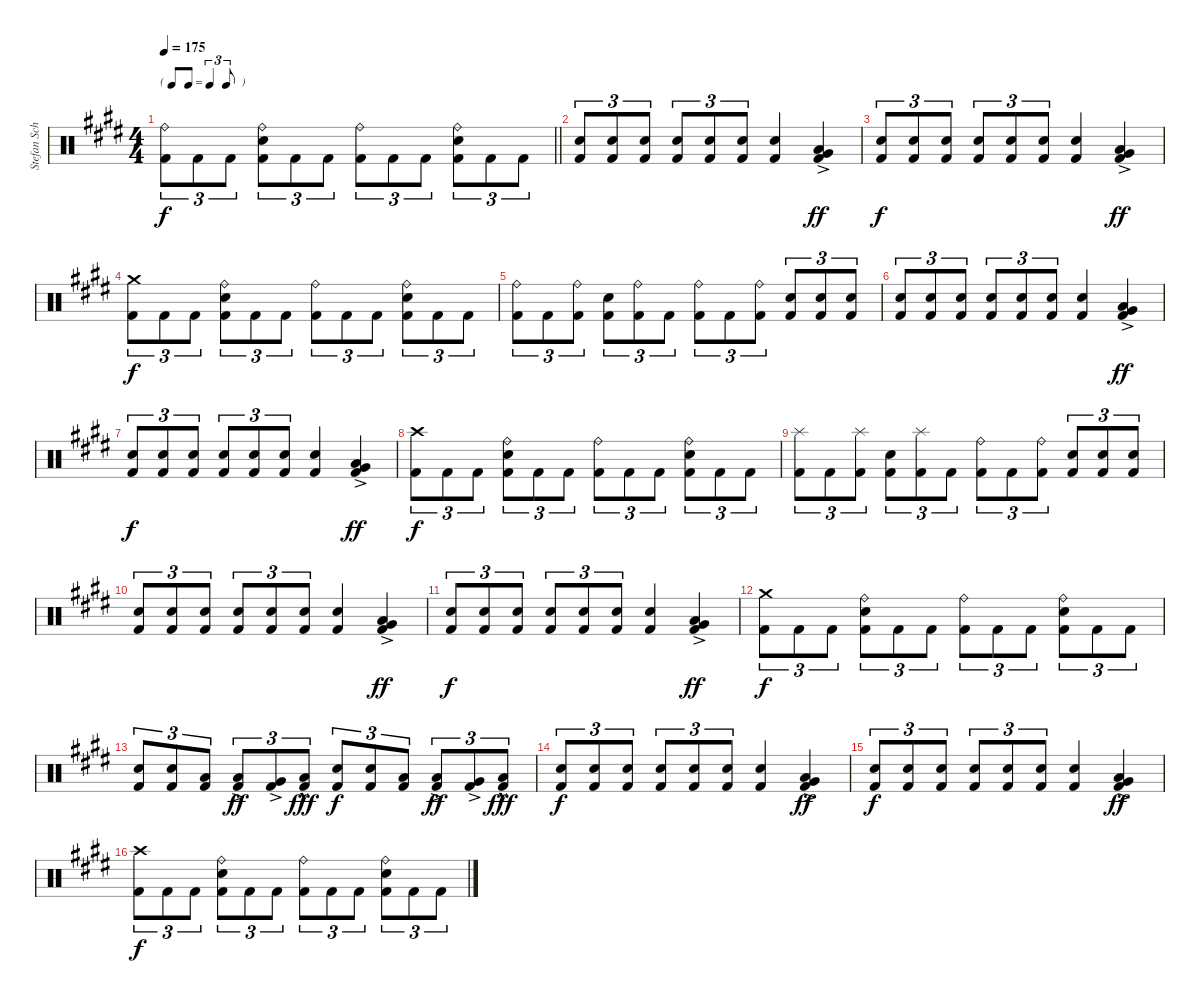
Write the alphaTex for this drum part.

\track ("Stefan Schwarzmann" "Stefan Sch") {instrument percussion}
\staff {score}
\articulation defaults
\ts (4 4)
\tf triplet8th
\tempo 175
\clef neutral
\barLineRight lightlight
\ks c#minor
("Ride (bell)" "Kick (hit) 2").8{tu (3 2) dy f} "Kick (hit) 2".8{tu (3 2)} "Kick (hit) 2".8{tu (3 2)} ("Ride (bell)" "Snare (hit) 2" "Kick (hit) 2").8{tu (3 2)} "Kick (hit) 2".8{tu (3 2)} "Kick (hit) 2".8{tu (3 2)} ("Ride (bell)" "Kick (hit) 2").8{tu (3 2)} "Kick (hit) 2".8{tu (3 2)} "Kick (hit) 2".8{tu (3 2)} ("Ride (bell)" "Snare (hit) 2" "Kick (hit) 2").8{tu (3 2)} "Kick (hit) 2".8{tu (3 2)} "Kick (hit) 2".8{tu (3 2)} |
\section ("" "")
("Snare (hit) 2" "Kick (hit) 2").8{tu (3 2)} ("Snare (hit) 2" "Kick (hit) 2").8{tu (3 2)} ("Snare (hit) 2" "Kick (hit) 2").8{tu (3 2)} ("Snare (hit) 2" "Kick (hit) 2").8{tu (3 2)} ("Snare (hit) 2" "Kick (hit) 2").8{tu (3 2)} ("Snare (hit) 2" "Kick (hit) 2").8{tu (3 2)} ("Snare (hit) 2" "Kick (hit) 2").4 ("Low Floor Tom (hit)"{ac} "Very Low Tom (hit)"{ac} "Kick (hit) 2").4{dy ff} |
("Snare (hit) 2" "Kick (hit) 2").8{tu (3 2) dy f} ("Snare (hit) 2" "Kick (hit) 2").8{tu (3 2)} ("Snare (hit) 2" "Kick (hit) 2").8{tu (3 2)} ("Snare (hit) 2" "Kick (hit) 2").8{tu (3 2)} ("Snare (hit) 2" "Kick (hit) 2").8{tu (3 2)} ("Snare (hit) 2" "Kick (hit) 2").8{tu (3 2)} ("Snare (hit) 2" "Kick (hit) 2").4 ("Low Floor Tom (hit)"{ac} "Very Low Tom (hit)"{ac} "Kick (hit) 2").4{dy ff} |
("Crash medium (hit)" "Kick (hit) 2").8{tu (3 2) dy f} "Kick (hit) 2".8{tu (3 2)} "Kick (hit) 2".8{tu (3 2)} ("Ride (bell)" "Snare (hit) 2" "Kick (hit) 2").8{tu (3 2)} "Kick (hit) 2".8{tu (3 2)} "Kick (hit) 2".8{tu (3 2)} ("Ride (bell)" "Kick (hit) 2").8{tu (3 2)} "Kick (hit) 2".8{tu (3 2)} "Kick (hit) 2".8{tu (3 2)} ("Ride (bell)" "Snare (hit) 2" "Kick (hit) 2").8{tu (3 2)} "Kick (hit) 2".8{tu (3 2)} "Kick (hit) 2".8{tu (3 2)} |
("Ride (bell)" "Kick (hit) 2").8{tu (3 2)} "Kick (hit) 2".8{tu (3 2)} ("Ride (bell)" "Kick (hit) 2").8{tu (3 2)} ("Snare (hit) 2" "Kick (hit) 2").8{tu (3 2)} ("Ride (bell)" "Kick (hit) 2").8{tu (3 2)} "Kick (hit) 2".8{tu (3 2)} ("Ride (bell)" "Kick (hit) 2").8{tu (3 2)} "Kick (hit) 2".8{tu (3 2)} ("Ride (bell)" "Kick (hit) 2").8{tu (3 2)} ("Snare (hit) 2" "Kick (hit) 2").8{tu (3 2)} ("Snare (hit) 2" "Kick (hit) 2").8{tu (3 2)} ("Snare (hit) 2" "Kick (hit) 2").8{tu (3 2)} |
("Snare (hit) 2" "Kick (hit) 2").8{tu (3 2)} ("Snare (hit) 2" "Kick (hit) 2").8{tu (3 2)} ("Snare (hit) 2" "Kick (hit) 2").8{tu (3 2)} ("Snare (hit) 2" "Kick (hit) 2").8{tu (3 2)} ("Snare (hit) 2" "Kick (hit) 2").8{tu (3 2)} ("Snare (hit) 2" "Kick (hit) 2").8{tu (3 2)} ("Snare (hit) 2" "Kick (hit) 2").4 ("Low Floor Tom (hit)"{ac} "Very Low Tom (hit)"{ac} "Kick (hit) 2").4{dy ff} |
("Snare (hit) 2" "Kick (hit) 2").8{tu (3 2) dy f} ("Snare (hit) 2" "Kick (hit) 2").8{tu (3 2)} ("Snare (hit) 2" "Kick (hit) 2").8{tu (3 2)} ("Snare (hit) 2" "Kick (hit) 2").8{tu (3 2)} ("Snare (hit) 2" "Kick (hit) 2").8{tu (3 2)} ("Snare (hit) 2" "Kick (hit) 2").8{tu (3 2)} ("Snare (hit) 2" "Kick (hit) 2").4 ("Low Floor Tom (hit)"{ac} "Very Low Tom (hit)"{ac} "Kick (hit) 2").4{dy ff} |
("Crash high (hit)" "Kick (hit) 2").8{tu (3 2) dy f} "Kick (hit) 2".8{tu (3 2)} "Kick (hit) 2".8{tu (3 2)} ("Ride (bell)" "Snare (hit) 2" "Kick (hit) 2").8{tu (3 2)} "Kick (hit) 2".8{tu (3 2)} "Kick (hit) 2".8{tu (3 2)} ("Ride (bell)" "Kick (hit) 2").8{tu (3 2)} "Kick (hit) 2".8{tu (3 2)} "Kick (hit) 2".8{tu (3 2)} ("Ride (bell)" "Snare (hit) 2" "Kick (hit) 2").8{tu (3 2)} "Kick (hit) 2".8{tu (3 2)} "Kick (hit) 2".8{tu (3 2)} |
("Splash (hit)" "Kick (hit) 2").8{tu (3 2)} "Kick (hit) 2".8{tu (3 2)} ("Splash (hit)" "Kick (hit) 2").8{tu (3 2)} ("Snare (hit) 2" "Kick (hit) 2").8{tu (3 2)} ("Splash (hit)" "Kick (hit) 2").8{tu (3 2)} "Kick (hit) 2".8{tu (3 2)} ("Ride (bell)" "Kick (hit) 2").8{tu (3 2)} "Kick (hit) 2".8{tu (3 2)} ("Ride (bell)" "Kick (hit) 2").8{tu (3 2)} ("Snare (hit) 2" "Kick (hit) 2").8{tu (3 2)} ("Snare (hit) 2" "Kick (hit) 2").8{tu (3 2)} ("Snare (hit) 2" "Kick (hit) 2").8{tu (3 2)} |
("Snare (hit) 2" "Kick (hit) 2").8{tu (3 2)} ("Snare (hit) 2" "Kick (hit) 2").8{tu (3 2)} ("Snare (hit) 2" "Kick (hit) 2").8{tu (3 2)} ("Snare (hit) 2" "Kick (hit) 2").8{tu (3 2)} ("Snare (hit) 2" "Kick (hit) 2").8{tu (3 2)} ("Snare (hit) 2" "Kick (hit) 2").8{tu (3 2)} ("Snare (hit) 2" "Kick (hit) 2").4 ("Low Floor Tom (hit)"{ac} "Very Low Tom (hit)"{ac} "Kick (hit) 2").4{dy ff} |
("Snare (hit) 2" "Kick (hit) 2").8{tu (3 2) dy f} ("Snare (hit) 2" "Kick (hit) 2").8{tu (3 2)} ("Snare (hit) 2" "Kick (hit) 2").8{tu (3 2)} ("Snare (hit) 2" "Kick (hit) 2").8{tu (3 2)} ("Snare (hit) 2" "Kick (hit) 2").8{tu (3 2)} ("Snare (hit) 2" "Kick (hit) 2").8{tu (3 2)} ("Snare (hit) 2" "Kick (hit) 2").4 ("Low Floor Tom (hit)"{ac} "Very Low Tom (hit)"{ac} "Kick (hit) 2").4{dy ff} |
("Crash medium (hit)" "Kick (hit) 2").8{tu (3 2) dy f} "Kick (hit) 2".8{tu (3 2)} "Kick (hit) 2".8{tu (3 2)} ("Ride (bell)" "Snare (hit) 2" "Kick (hit) 2").8{tu (3 2)} "Kick (hit) 2".8{tu (3 2)} "Kick (hit) 2".8{tu (3 2)} ("Ride (bell)" "Kick (hit) 2").8{tu (3 2)} "Kick (hit) 2".8{tu (3 2)} "Kick (hit) 2".8{tu (3 2)} ("Ride (bell)" "Snare (hit) 2" "Kick (hit) 2").8{tu (3 2)} "Kick (hit) 2".8{tu (3 2)} "Kick (hit) 2".8{tu (3 2)} |
("Snare (hit) 2" "Kick (hit) 2").8{tu (3 2)} ("Snare (hit) 2" "Kick (hit) 2").8{tu (3 2)} ("Low Floor Tom (hit)" "Kick (hit) 2").8{tu (3 2)} ("Low Tom (hit)"{ac} "Kick (hit) 2").8{tu (3 2) dy ff} ("Very Low Tom (hit)"{ac} "Kick (hit) 2").8{tu (3 2)} ("Low Floor Tom (hit)"{hac} "Kick (hit) 2").8{tu (3 2) dy fff} ("Snare (hit) 2" "Kick (hit) 2").8{tu (3 2) dy f} ("Snare (hit) 2" "Kick (hit) 2").8{tu (3 2)} ("Low Floor Tom (hit)" "Kick (hit) 2").8{tu (3 2)} ("Low Tom (hit)"{ac} "Kick (hit) 2").8{tu (3 2) dy ff} ("Very Low Tom (hit)"{ac} "Kick (hit) 2").8{tu (3 2)} ("Low Floor Tom (hit)"{hac} "Kick (hit) 2").8{tu (3 2) dy fff} |
("Snare (hit) 2" "Kick (hit) 2").8{tu (3 2) dy f} ("Snare (hit) 2" "Kick (hit) 2").8{tu (3 2)} ("Snare (hit) 2" "Kick (hit) 2").8{tu (3 2)} ("Snare (hit) 2" "Kick (hit) 2").8{tu (3 2)} ("Snare (hit) 2" "Kick (hit) 2").8{tu (3 2)} ("Snare (hit) 2" "Kick (hit) 2").8{tu (3 2)} ("Snare (hit) 2" "Kick (hit) 2").4 ("Low Floor Tom (hit)"{ac} "Very Low Tom (hit)"{ac} "Kick (hit) 2").4{dy ff} |
("Snare (hit) 2" "Kick (hit) 2").8{tu (3 2) dy f} ("Snare (hit) 2" "Kick (hit) 2").8{tu (3 2)} ("Snare (hit) 2" "Kick (hit) 2").8{tu (3 2)} ("Snare (hit) 2" "Kick (hit) 2").8{tu (3 2)} ("Snare (hit) 2" "Kick (hit) 2").8{tu (3 2)} ("Snare (hit) 2" "Kick (hit) 2").8{tu (3 2)} ("Snare (hit) 2" "Kick (hit) 2").4 ("Low Floor Tom (hit)"{ac} "Very Low Tom (hit)"{ac} "Kick (hit) 2").4{dy ff} |
("Crash high (hit)" "Kick (hit) 2").8{tu (3 2) dy f} "Kick (hit) 2".8{tu (3 2)} "Kick (hit) 2".8{tu (3 2)} ("Ride (bell)" "Snare (hit) 2" "Kick (hit) 2").8{tu (3 2)} "Kick (hit) 2".8{tu (3 2)} "Kick (hit) 2".8{tu (3 2)} ("Ride (bell)" "Kick (hit) 2").8{tu (3 2)} "Kick (hit) 2".8{tu (3 2)} "Kick (hit) 2".8{tu (3 2)} ("Ride (bell)" "Snare (hit) 2" "Kick (hit) 2").8{tu (3 2)} "Kick (hit) 2".8{tu (3 2)} "Kick (hit) 2".8{tu (3 2)}
